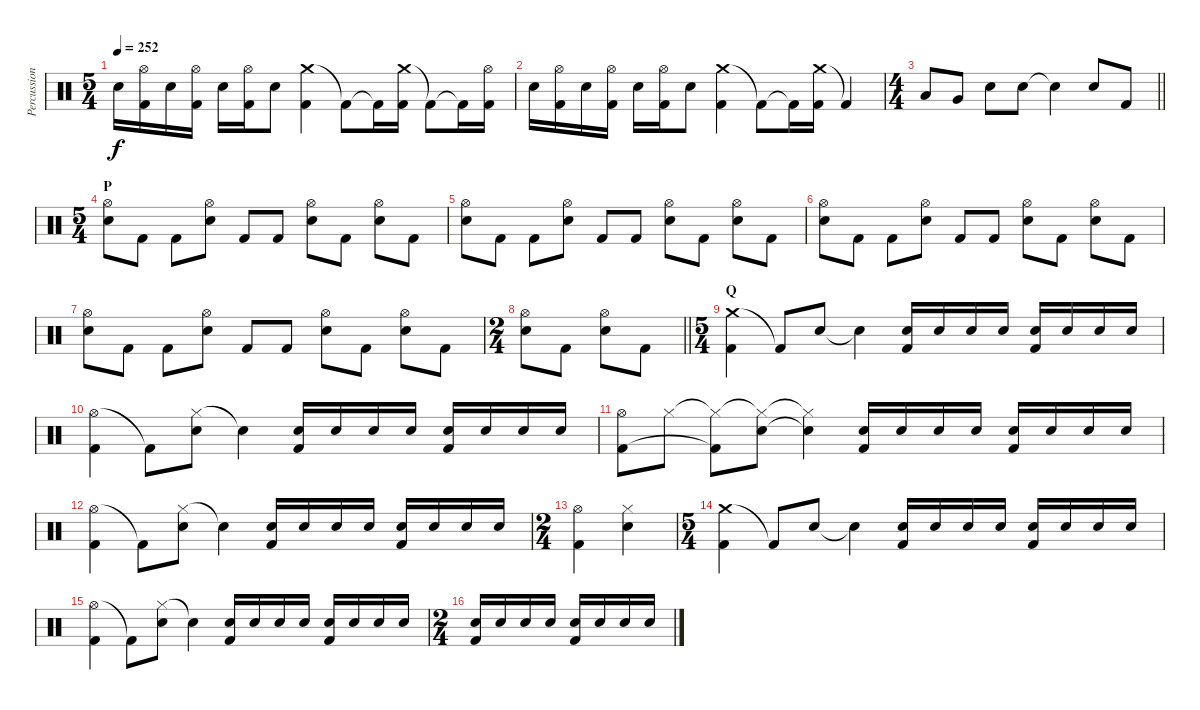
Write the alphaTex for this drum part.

\track ("Percussion" "Percussion") {instrument percussion}
\staff {score}
\articulation defaults
\ts (5 4)
\tempo 252
\clef neutral
\ks c "Electric Snare (hit)".16{dy f}
("Hi-Hat (open)" "Kick (hit) 2").16 "Electric Snare (hit)".16 ("Hi-Hat (open)" "Kick (hit) 2").16 "Electric Snare (hit)".16 ("Hi-Hat (open)" "Kick (hit) 2").16 "Electric Snare (hit)".8 ("Crash medium (hit)" "Kick (hit) 2").4 "Kick (hit) 2"{t}.8 "Kick (hit) 2"{t}.16 ("Crash medium (hit)" "Kick (hit) 2").16 "Kick (hit) 2"{t}.8 "Kick (hit) 2"{t}.16 ("Hi-Hat (open)" "Kick (hit) 2").16 |
"Electric Snare (hit)".16 ("Hi-Hat (open)" "Kick (hit) 2").16 "Electric Snare (hit)".16 ("Hi-Hat (open)" "Kick (hit) 2").16 "Electric Snare (hit)".16 ("Hi-Hat (open)" "Kick (hit) 2").16 "Electric Snare (hit)".8 ("Crash medium (hit)" "Kick (hit) 2").4 "Kick (hit) 2"{t}.8 "Kick (hit) 2"{t}.16 ("Crash medium (hit)" "Kick (hit) 2").16 "Kick (hit) 2"{t}.4 |
\ts (4 4)
\barLineRight lightlight "Low Tom (hit)".8 "Very Low Tom (hit)".8 "Electric Snare (hit)".8 "Electric Snare (hit)".8 "Electric Snare (hit)"{t}.4 "Electric Snare (hit)".8 "Kick (hit) 2".8
|
\ts (5 4)
\section ("" "P")
("Hi-Hat (open)" "Electric Snare (hit)").8 "Kick (hit) 2".8 "Kick (hit) 2".8 ("Hi-Hat (open)" "Electric Snare (hit)").8 "Kick (hit) 2".8 "Kick (hit) 2".8 ("Hi-Hat (open)" "Electric Snare (hit)").8 "Kick (hit) 2".8 ("Hi-Hat (open)" "Electric Snare (hit)").8 "Kick (hit) 2".8 |
("Hi-Hat (open)" "Electric Snare (hit)").8 "Kick (hit) 2".8 "Kick (hit) 2".8 ("Hi-Hat (open)" "Electric Snare (hit)").8 "Kick (hit) 2".8 "Kick (hit) 2".8 ("Hi-Hat (open)" "Electric Snare (hit)").8 "Kick (hit) 2".8 ("Hi-Hat (open)" "Electric Snare (hit)").8 "Kick (hit) 2".8 |
("Hi-Hat (open)" "Electric Snare (hit)").8 "Kick (hit) 2".8 "Kick (hit) 2".8 ("Hi-Hat (open)" "Electric Snare (hit)").8 "Kick (hit) 2".8 "Kick (hit) 2".8 ("Hi-Hat (open)" "Electric Snare (hit)").8 "Kick (hit) 2".8 ("Hi-Hat (open)" "Electric Snare (hit)").8 "Kick (hit) 2".8 |
("Hi-Hat (open)" "Electric Snare (hit)").8 "Kick (hit) 2".8 "Kick (hit) 2".8 ("Hi-Hat (open)" "Electric Snare (hit)").8 "Kick (hit) 2".8 "Kick (hit) 2".8 ("Hi-Hat (open)" "Electric Snare (hit)").8 "Kick (hit) 2".8 ("Hi-Hat (open)" "Electric Snare (hit)").8 "Kick (hit) 2".8 |
\ts (2 4)
\barLineRight lightlight
("Hi-Hat (open)" "Electric Snare (hit)").8 "Kick (hit) 2".8 ("Hi-Hat (open)" "Electric Snare (hit)").8 "Kick (hit) 2".8 |
\ts (5 4)
\section ("" "Q")
("Crash medium (hit)" "Kick (hit) 2").4 "Kick (hit) 2"{t}.8 "Electric Snare (hit)".8 "Electric Snare (hit)"{t}.4 ("Electric Snare (hit)" "Kick (hit) 2").16 "Electric Snare (hit)".16 "Electric Snare (hit)".16 "Electric Snare (hit)".16 ("Electric Snare (hit)" "Kick (hit) 2").16 "Electric Snare (hit)".16 "Electric Snare (hit)".16 "Electric Snare (hit)".16 |
("Hi-Hat (open)" "Kick (hit) 2").4 "Kick (hit) 2"{t}.8 ("Hi-Hat (closed)" "Electric Snare (hit)").8 "Electric Snare (hit)"{t}.4 ("Electric Snare (hit)" "Kick (hit) 2").16 "Electric Snare (hit)".16 "Electric Snare (hit)".16 "Electric Snare (hit)".16 ("Electric Snare (hit)" "Kick (hit) 2").16 "Electric Snare (hit)".16 "Electric Snare (hit)".16 "Electric Snare (hit)".16 |
("Hi-Hat (open)" "Kick (hit) 2").8 "Hi-Hat (closed)".8 ("Hi-Hat (closed)"{t} "Kick (hit) 2"{t}).8 ("Hi-Hat (closed)"{t} "Electric Snare (hit)").8 ("Hi-Hat (closed)"{t} "Electric Snare (hit)"{t}).4 ("Electric Snare (hit)" "Kick (hit) 2").16 "Electric Snare (hit)".16 "Electric Snare (hit)".16 "Electric Snare (hit)".16 ("Electric Snare (hit)" "Kick (hit) 2").16 "Electric Snare (hit)".16 "Electric Snare (hit)".16 "Electric Snare (hit)".16 |
("Hi-Hat (open)" "Kick (hit) 2").4 "Kick (hit) 2"{t}.8 ("Hi-Hat (closed)" "Electric Snare (hit)").8 "Electric Snare (hit)"{t}.4 ("Electric Snare (hit)" "Kick (hit) 2").16 "Electric Snare (hit)".16 "Electric Snare (hit)".16 "Electric Snare (hit)".16 ("Electric Snare (hit)" "Kick (hit) 2").16 "Electric Snare (hit)".16 "Electric Snare (hit)".16 "Electric Snare (hit)".16 |
\ts (2 4)
("Hi-Hat (open)" "Kick (hit) 2").4 ("Hi-Hat (closed)" "Electric Snare (hit)").4 |
\ts (5 4)
("Crash medium (hit)" "Kick (hit) 2").4 "Kick (hit) 2"{t}.8 "Electric Snare (hit)".8 "Electric Snare (hit)"{t}.4 ("Electric Snare (hit)" "Kick (hit) 2").16 "Electric Snare (hit)".16 "Electric Snare (hit)".16 "Electric Snare (hit)".16 ("Electric Snare (hit)" "Kick (hit) 2").16 "Electric Snare (hit)".16 "Electric Snare (hit)".16 "Electric Snare (hit)".16 |
("Hi-Hat (open)" "Kick (hit) 2").4 "Kick (hit) 2"{t}.8 ("Hi-Hat (closed)" "Electric Snare (hit)").8 "Electric Snare (hit)"{t}.4 ("Electric Snare (hit)" "Kick (hit) 2").16 "Electric Snare (hit)".16 "Electric Snare (hit)".16 "Electric Snare (hit)".16 ("Electric Snare (hit)" "Kick (hit) 2").16 "Electric Snare (hit)".16 "Electric Snare (hit)".16 "Electric Snare (hit)".16 |
\ts (2 4)
("Electric Snare (hit)" "Kick (hit) 2").16 "Electric Snare (hit)".16 "Electric Snare (hit)".16 "Electric Snare (hit)".16 ("Electric Snare (hit)" "Kick (hit) 2").16 "Electric Snare (hit)".16 "Electric Snare (hit)".16 "Electric Snare (hit)".16
